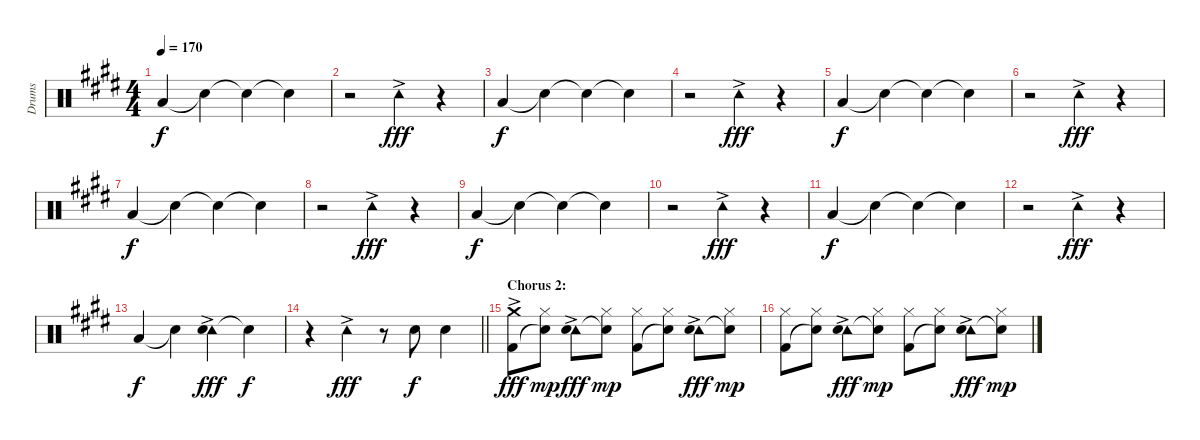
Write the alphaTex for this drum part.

\track ("Drums" "Drums") {instrument percussion}
\staff {score}
\articulation defaults
\ts (4 4)
\tempo 170
\clef neutral
\ks c#minor "Low Floor Tom (hit)".4{dy f} "Snare (hit)"{t}.4 "Snare (hit)"{t}.4 "Snare (hit)"{t}.4
|
r.2 "Tambourine (hit)"{ac}.4{dy fff} r.4 |
"Low Floor Tom (hit)".4{dy f} "Snare (hit)"{t}.4 "Snare (hit)"{t}.4 "Snare (hit)"{t}.4 |
r.2 "Tambourine (hit)"{ac}.4{dy fff} r.4 |
"Low Floor Tom (hit)".4{dy f} "Snare (hit)"{t}.4 "Snare (hit)"{t}.4 "Snare (hit)"{t}.4 |
r.2 "Tambourine (hit)"{ac}.4{dy fff} r.4 |
"Low Floor Tom (hit)".4{dy f} "Snare (hit)"{t}.4 "Snare (hit)"{t}.4 "Snare (hit)"{t}.4 |
r.2 "Tambourine (hit)"{ac}.4{dy fff} r.4 |
"Low Floor Tom (hit)".4{dy f} "Snare (hit)"{t}.4 "Snare (hit)"{t}.4 "Snare (hit)"{t}.4 |
r.2 "Tambourine (hit)"{ac}.4{dy fff} r.4 |
"Low Floor Tom (hit)".4{dy f} "Snare (hit)"{t}.4 "Snare (hit)"{t}.4 "Snare (hit)"{t}.4 |
r.2 "Tambourine (hit)"{ac}.4{dy fff} r.4 |
"Low Floor Tom (hit)".4{dy f} "Snare (hit)"{t}.4 ("Tambourine (hit)"{ac} "Snare (hit)").4{dy fff} "Snare (hit)"{t}.4{dy f} |
\barLineRight lightlight
r.4 "Tambourine (hit)"{ac}.4{dy fff} r.8 "Snare (hit) 2".8{dy f} "Snare (hit) 2".4 |
\section ("" "Chorus 2:")
("Crash medium (hit)"{ac} "Kick (hit) 2").8{dy fff} ("Hi-Hat (closed)" "Snare (hit)"{t}).8{dy mp} ("Tambourine (hit)"{ac} "Hand Clap (hit)").8{dy fff} ("Hi-Hat (closed)" "Snare (hit)"{t}).8{dy mp} ("Hi-Hat (closed)" "Kick (hit) 2").8 ("Hi-Hat (closed)" "Snare (hit)"{t}).8 ("Tambourine (hit)"{ac} "Hand Clap (hit)").8{dy fff} ("Hi-Hat (closed)" "Snare (hit)"{t}).8{dy mp} |
("Hi-Hat (closed)" "Kick (hit) 2").8 ("Hi-Hat (closed)" "Snare (hit)"{t}).8 ("Tambourine (hit)"{ac} "Hand Clap (hit)").8{dy fff} ("Hi-Hat (closed)" "Snare (hit)"{t}).8{dy mp} ("Hi-Hat (closed)" "Kick (hit) 2").8 ("Hi-Hat (closed)" "Snare (hit)"{t}).8 ("Tambourine (hit)"{ac} "Hand Clap (hit)").8{dy fff} ("Hi-Hat (closed)" "Snare (hit)"{t}).8{dy mp}
